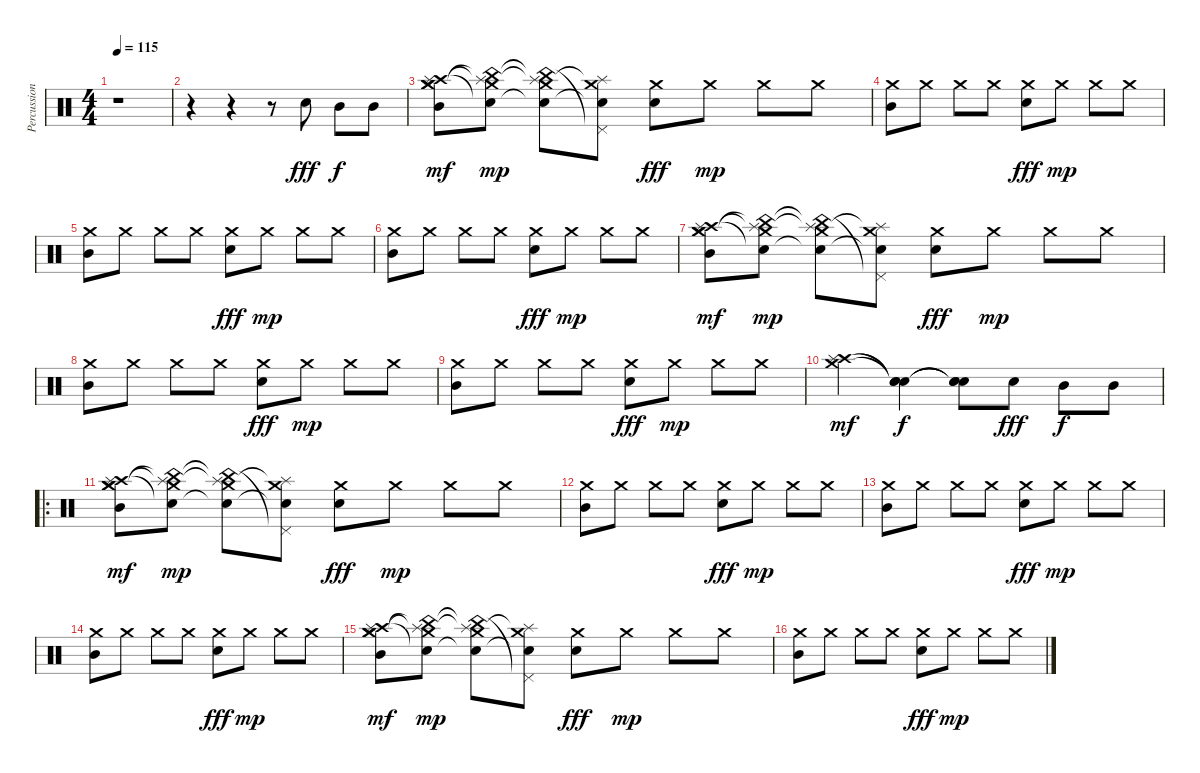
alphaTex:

\track ("Percussion" "Percussion") {instrument percussion}
\staff {score}
\articulation defaults
\ts (4 4)
\tempo 115
\clef neutral
\ks c
r.1{dy mp} |
r.4 r.4 r.8 "Electric Snare (hit)".8{dy fff} "Mid Tom (hit)".8{dy f} "Mid Tom (hit)".8 |
("Crash medium (hit)" "Crash high (hit)" "Crash medium (hit)" "Splash (hit)" "Mid Tom (hit)").8{dy mf} ("China (hit)"{t} "Snare (hit)"{t} "Crash medium (hit)" "Splash (hit)"{t}).8{dy mp} ("China (hit)"{t} "Snare (hit)"{t} "Crash medium (hit)" "Splash (hit)"{t}).8 ("Pedal Hi-Hat (hit)"{t} "Snare (hit)"{t} "Crash medium (hit)" "Splash (hit)"{t}).8 ("Crash medium (hit)" "Electric Snare (hit)").8{dy fff} "Crash medium (hit)".8{dy mp} "Crash medium (hit)".8 "Crash medium (hit)".8 |
("Crash medium (hit)" "Mid Tom (hit)").8 "Crash medium (hit)".8 "Crash medium (hit)".8 "Crash medium (hit)".8 ("Crash medium (hit)" "Electric Snare (hit)").8{dy fff} "Crash medium (hit)".8{dy mp} "Crash medium (hit)".8 "Crash medium (hit)".8 |
("Crash medium (hit)" "Mid Tom (hit)").8 "Crash medium (hit)".8 "Crash medium (hit)".8 "Crash medium (hit)".8 ("Crash medium (hit)" "Electric Snare (hit)").8{dy fff} "Crash medium (hit)".8{dy mp} "Crash medium (hit)".8 "Crash medium (hit)".8 |
("Crash medium (hit)" "Mid Tom (hit)").8 "Crash medium (hit)".8 "Crash medium (hit)".8 "Crash medium (hit)".8 ("Crash medium (hit)" "Electric Snare (hit)").8{dy fff} "Crash medium (hit)".8{dy mp} "Crash medium (hit)".8 "Crash medium (hit)".8 |
("Crash medium (hit)" "Crash high (hit)" "Crash medium (hit)" "Splash (hit)" "Mid Tom (hit)").8{dy mf} ("China (hit)"{t} "Snare (hit)"{t} "Crash medium (hit)" "Splash (hit)"{t}).8{dy mp} ("China (hit)"{t} "Snare (hit)"{t} "Crash medium (hit)" "Splash (hit)"{t}).8 ("Pedal Hi-Hat (hit)"{t} "Snare (hit)"{t} "Crash medium (hit)" "Splash (hit)"{t}).8 ("Crash medium (hit)" "Electric Snare (hit)").8{dy fff} "Crash medium (hit)".8{dy mp} "Crash medium (hit)".8 "Crash medium (hit)".8 |
("Crash medium (hit)" "Mid Tom (hit)").8 "Crash medium (hit)".8 "Crash medium (hit)".8 "Crash medium (hit)".8 ("Crash medium (hit)" "Electric Snare (hit)").8{dy fff} "Crash medium (hit)".8{dy mp} "Crash medium (hit)".8 "Crash medium (hit)".8 |
("Crash medium (hit)" "Mid Tom (hit)").8 "Crash medium (hit)".8 "Crash medium (hit)".8 "Crash medium (hit)".8 ("Crash medium (hit)" "Electric Snare (hit)").8{dy fff} "Crash medium (hit)".8{dy mp} "Crash medium (hit)".8 "Crash medium (hit)".8 |
("Crash medium (hit)" "Crash high (hit)" "Splash (hit)").4{dy mf} ("Snare (hit)"{t} "Snare (hit)"{t} "Snare (hit)"{t}).4{dy f} ("Snare (hit)"{t} "Snare (hit)"{t} "Snare (hit)"{t}).8 "Electric Snare (hit)".8{dy fff} "Mid Tom (hit)".8{dy f} "Mid Tom (hit)".8 |
\ro
("Crash medium (hit)" "Crash high (hit)" "Crash medium (hit)" "Splash (hit)" "Mid Tom (hit)").8{dy mf} ("China (hit)"{t} "Snare (hit)"{t} "Crash medium (hit)" "Splash (hit)"{t}).8{dy mp} ("China (hit)"{t} "Snare (hit)"{t} "Crash medium (hit)" "Splash (hit)"{t}).8 ("Pedal Hi-Hat (hit)"{t} "Snare (hit)"{t} "Crash medium (hit)" "Splash (hit)"{t}).8 ("Crash medium (hit)" "Electric Snare (hit)").8{dy fff} "Crash medium (hit)".8{dy mp} "Crash medium (hit)".8 "Crash medium (hit)".8 |
("Crash medium (hit)" "Mid Tom (hit)").8 "Crash medium (hit)".8 "Crash medium (hit)".8 "Crash medium (hit)".8 ("Crash medium (hit)" "Electric Snare (hit)").8{dy fff} "Crash medium (hit)".8{dy mp} "Crash medium (hit)".8 "Crash medium (hit)".8 |
("Crash medium (hit)" "Mid Tom (hit)").8 "Crash medium (hit)".8 "Crash medium (hit)".8 "Crash medium (hit)".8 ("Crash medium (hit)" "Electric Snare (hit)").8{dy fff} "Crash medium (hit)".8{dy mp} "Crash medium (hit)".8 "Crash medium (hit)".8 |
("Crash medium (hit)" "Mid Tom (hit)").8 "Crash medium (hit)".8 "Crash medium (hit)".8 "Crash medium (hit)".8 ("Crash medium (hit)" "Electric Snare (hit)").8{dy fff} "Crash medium (hit)".8{dy mp} "Crash medium (hit)".8 "Crash medium (hit)".8 |
("Crash medium (hit)" "Crash high (hit)" "Crash medium (hit)" "Splash (hit)" "Mid Tom (hit)").8{dy mf} ("China (hit)"{t} "Snare (hit)"{t} "Crash medium (hit)" "Splash (hit)"{t}).8{dy mp} ("China (hit)"{t} "Snare (hit)"{t} "Crash medium (hit)" "Splash (hit)"{t}).8 ("Pedal Hi-Hat (hit)"{t} "Snare (hit)"{t} "Crash medium (hit)" "Splash (hit)"{t}).8 ("Crash medium (hit)" "Electric Snare (hit)").8{dy fff} "Crash medium (hit)".8{dy mp} "Crash medium (hit)".8 "Crash medium (hit)".8 |
("Crash medium (hit)" "Mid Tom (hit)").8 "Crash medium (hit)".8 "Crash medium (hit)".8 "Crash medium (hit)".8 ("Crash medium (hit)" "Electric Snare (hit)").8{dy fff} "Crash medium (hit)".8{dy mp} "Crash medium (hit)".8 "Crash medium (hit)".8
